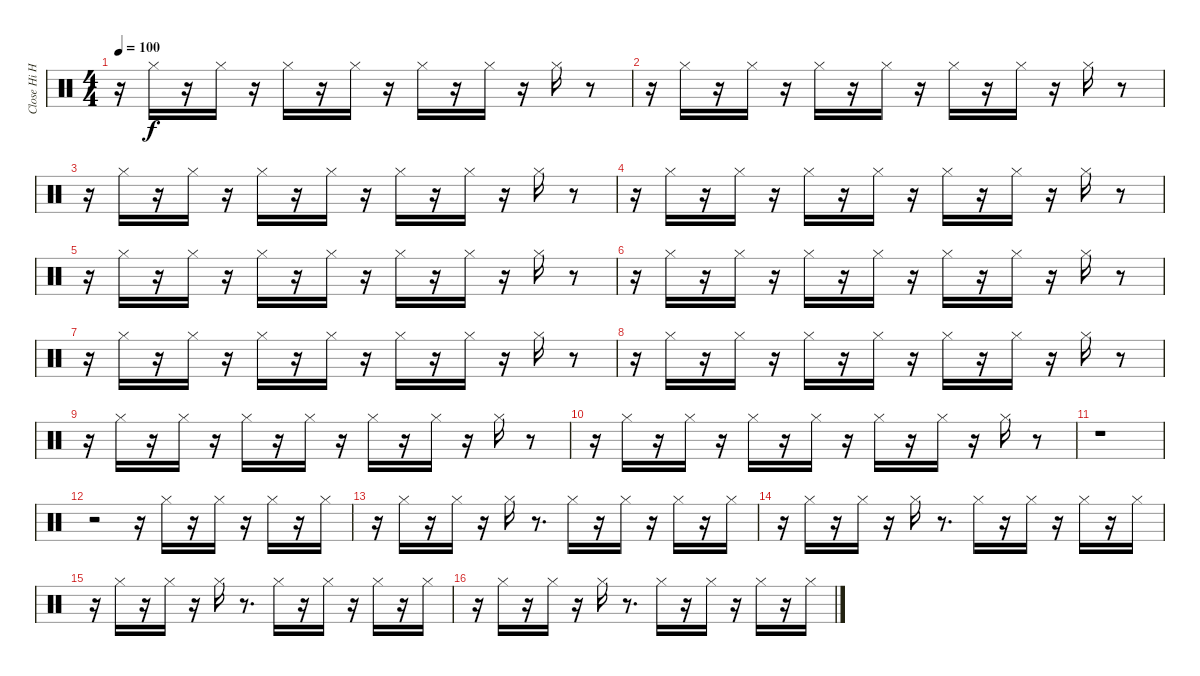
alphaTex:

\track ("Close Hi Hat" "Close Hi H") {instrument percussion}
\staff {score}
\articulation defaults
\ts (4 4)
\tempo 100
\clef neutral
\ks c
r.16{dy f} "Hi-Hat (closed)".16 r.16 "Hi-Hat (closed)".16 r.16 "Hi-Hat (closed)".16 r.16 "Hi-Hat (closed)".16 r.16 "Hi-Hat (closed)".16 r.16 "Hi-Hat (closed)".16 r.16 "Hi-Hat (closed)".16 r.8 |
r.16 "Hi-Hat (closed)".16 r.16 "Hi-Hat (closed)".16 r.16 "Hi-Hat (closed)".16 r.16 "Hi-Hat (closed)".16 r.16 "Hi-Hat (closed)".16 r.16 "Hi-Hat (closed)".16 r.16 "Hi-Hat (closed)".16 r.8 |
r.16 "Hi-Hat (closed)".16 r.16 "Hi-Hat (closed)".16 r.16 "Hi-Hat (closed)".16 r.16 "Hi-Hat (closed)".16 r.16 "Hi-Hat (closed)".16 r.16 "Hi-Hat (closed)".16 r.16 "Hi-Hat (closed)".16 r.8 |
r.16 "Hi-Hat (closed)".16 r.16 "Hi-Hat (closed)".16 r.16 "Hi-Hat (closed)".16 r.16 "Hi-Hat (closed)".16 r.16 "Hi-Hat (closed)".16 r.16 "Hi-Hat (closed)".16 r.16 "Hi-Hat (closed)".16 r.8 |
r.16 "Hi-Hat (closed)".16 r.16 "Hi-Hat (closed)".16 r.16 "Hi-Hat (closed)".16 r.16 "Hi-Hat (closed)".16 r.16 "Hi-Hat (closed)".16 r.16 "Hi-Hat (closed)".16 r.16 "Hi-Hat (closed)".16 r.8 |
r.16 "Hi-Hat (closed)".16 r.16 "Hi-Hat (closed)".16 r.16 "Hi-Hat (closed)".16 r.16 "Hi-Hat (closed)".16 r.16 "Hi-Hat (closed)".16 r.16 "Hi-Hat (closed)".16 r.16 "Hi-Hat (closed)".16 r.8 |
r.16 "Hi-Hat (closed)".16 r.16 "Hi-Hat (closed)".16 r.16 "Hi-Hat (closed)".16 r.16 "Hi-Hat (closed)".16 r.16 "Hi-Hat (closed)".16 r.16 "Hi-Hat (closed)".16 r.16 "Hi-Hat (closed)".16 r.8 |
r.16 "Hi-Hat (closed)".16 r.16 "Hi-Hat (closed)".16 r.16 "Hi-Hat (closed)".16 r.16 "Hi-Hat (closed)".16 r.16 "Hi-Hat (closed)".16 r.16 "Hi-Hat (closed)".16 r.16 "Hi-Hat (closed)".16 r.8 |
r.16 "Hi-Hat (closed)".16 r.16 "Hi-Hat (closed)".16 r.16 "Hi-Hat (closed)".16 r.16 "Hi-Hat (closed)".16 r.16 "Hi-Hat (closed)".16 r.16 "Hi-Hat (closed)".16 r.16 "Hi-Hat (closed)".16 r.8 |
r.16 "Hi-Hat (closed)".16 r.16 "Hi-Hat (closed)".16 r.16 "Hi-Hat (closed)".16 r.16 "Hi-Hat (closed)".16 r.16 "Hi-Hat (closed)".16 r.16 "Hi-Hat (closed)".16 r.16 "Hi-Hat (closed)".16 r.8 |
r.1 |
r.2 r.16 "Hi-Hat (closed)".16 r.16 "Hi-Hat (closed)".16 r.16 "Hi-Hat (closed)".16 r.16 "Hi-Hat (closed)".16 |
r.16 "Hi-Hat (closed)".16 r.16 "Hi-Hat (closed)".16 r.16 "Hi-Hat (closed)".16 r.8{d} "Hi-Hat (closed)".16 r.16 "Hi-Hat (closed)".16 r.16 "Hi-Hat (closed)".16 r.16 "Hi-Hat (closed)".16 |
r.16 "Hi-Hat (closed)".16 r.16 "Hi-Hat (closed)".16 r.16 "Hi-Hat (closed)".16 r.8{d} "Hi-Hat (closed)".16 r.16 "Hi-Hat (closed)".16 r.16 "Hi-Hat (closed)".16 r.16 "Hi-Hat (closed)".16 |
r.16 "Hi-Hat (closed)".16 r.16 "Hi-Hat (closed)".16 r.16 "Hi-Hat (closed)".16 r.8{d} "Hi-Hat (closed)".16 r.16 "Hi-Hat (closed)".16 r.16 "Hi-Hat (closed)".16 r.16 "Hi-Hat (closed)".16 |
r.16 "Hi-Hat (closed)".16 r.16 "Hi-Hat (closed)".16 r.16 "Hi-Hat (closed)".16 r.8{d} "Hi-Hat (closed)".16 r.16 "Hi-Hat (closed)".16 r.16 "Hi-Hat (closed)".16 r.16 "Hi-Hat (closed)".16
